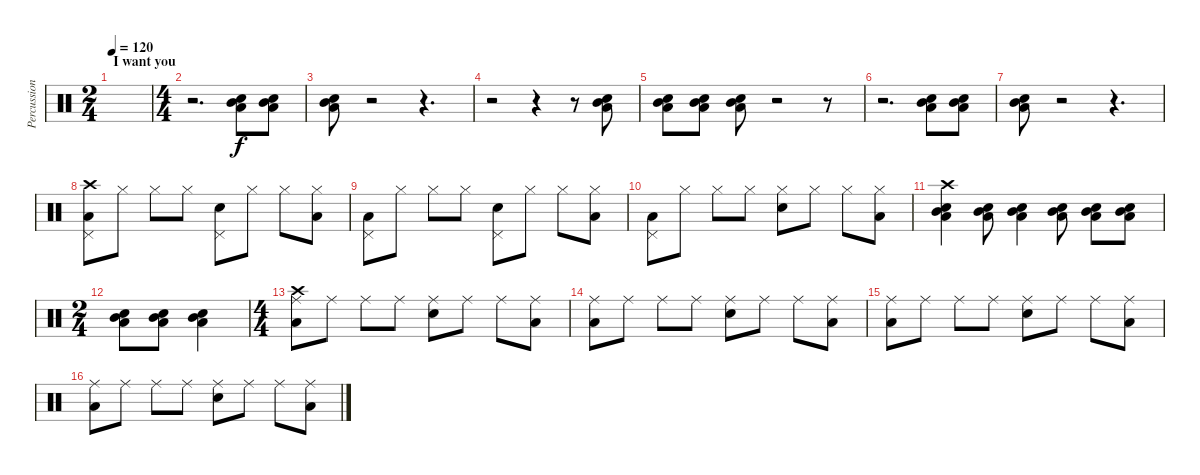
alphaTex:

\track ("Percussions" "Percussion") {instrument percussion}
\staff {score}
\articulation defaults
\ts (2 4)
\section ("" "I want you")
\tempo 120
\clef neutral
\ks c
|
\ts (4 4)
r.2{d} ("Snare (hit) 2" "Mid Tom (hit)" "Low Floor Tom (hit)").8 ("Snare (hit) 2" "Mid Tom (hit)" "Low Floor Tom (hit)").8 |
("Snare (hit) 2" "Mid Tom (hit)" "Low Floor Tom (hit)").8 r.2 r.4{d} |
r.2 r.4 r.8 ("Snare (hit) 2" "Mid Tom (hit)" "Low Floor Tom (hit)").8 |
("Snare (hit) 2" "Mid Tom (hit)" "Low Floor Tom (hit)").8 ("Snare (hit) 2" "Mid Tom (hit)" "Low Floor Tom (hit)").8 ("Snare (hit) 2" "Mid Tom (hit)" "Low Floor Tom (hit)").8 r.2 r.8 |
r.2{d} ("Snare (hit) 2" "Mid Tom (hit)" "Low Floor Tom (hit)").8 ("Snare (hit) 2" "Mid Tom (hit)" "Low Floor Tom (hit)").8 |
("Snare (hit) 2" "Mid Tom (hit)" "Low Floor Tom (hit)").8 r.2 r.4{d} |
("Crash high (hit)" "Pedal Hi-Hat (hit)" "Low Floor Tom (hit)").8 "Hi-Hat (closed)".8 "Hi-Hat (closed)".8 "Hi-Hat (closed)".8 ("Snare (hit) 2" "Pedal Hi-Hat (hit)").8 "Hi-Hat (closed)".8 "Hi-Hat (closed)".8 ("Hi-Hat (closed)" "Low Floor Tom (hit)").8 |
("Pedal Hi-Hat (hit)" "Low Floor Tom (hit)").8 "Hi-Hat (closed)".8 "Hi-Hat (closed)".8 "Hi-Hat (closed)".8 ("Snare (hit) 2" "Pedal Hi-Hat (hit)").8 "Hi-Hat (closed)".8 "Hi-Hat (closed)".8 ("Hi-Hat (closed)" "Low Floor Tom (hit)").8 |
("Pedal Hi-Hat (hit)" "Low Floor Tom (hit)").8 "Hi-Hat (closed)".8 "Hi-Hat (closed)".8 "Hi-Hat (closed)".8 ("Snare (hit) 2" "Hi-Hat (closed)").8 "Hi-Hat (closed)".8 "Hi-Hat (closed)".8 ("Hi-Hat (closed)" "Low Floor Tom (hit)").8 |
("Snare (hit) 2" "Mid Tom (hit)" "Crash high (hit)" "Low Floor Tom (hit)").4 ("Snare (hit) 2" "Mid Tom (hit)" "Low Floor Tom (hit)").8 ("Snare (hit) 2" "Mid Tom (hit)" "Low Floor Tom (hit)").4 ("Snare (hit) 2" "Mid Tom (hit)" "Low Floor Tom (hit)").8 ("Snare (hit) 2" "Mid Tom (hit)" "Low Floor Tom (hit)").8 ("Snare (hit) 2" "Mid Tom (hit)" "Low Floor Tom (hit)").8 |
\ts (2 4)
("Snare (hit) 2" "Mid Tom (hit)" "Low Floor Tom (hit)").8 ("Snare (hit) 2" "Mid Tom (hit)" "Low Floor Tom (hit)").8 ("Snare (hit) 2" "Mid Tom (hit)" "Low Floor Tom (hit)").4 |
\ts (4 4)
("Crash high (hit)" "Ride (middle)" "Low Floor Tom (hit)").8 "Ride (middle)".8 "Ride (middle)".8 "Ride (middle)".8 ("Snare (hit) 2" "Ride (middle)").8 "Ride (middle)".8 "Ride (middle)".8 ("Ride (middle)" "Low Floor Tom (hit)").8 |
("Ride (middle)" "Low Floor Tom (hit)").8 "Ride (middle)".8 "Ride (middle)".8 "Ride (middle)".8 ("Snare (hit) 2" "Ride (middle)").8 "Ride (middle)".8 "Ride (middle)".8 ("Ride (middle)" "Low Floor Tom (hit)").8 |
("Ride (middle)" "Low Floor Tom (hit)").8 "Ride (middle)".8 "Ride (middle)".8 "Ride (middle)".8 ("Snare (hit) 2" "Ride (middle)").8 "Ride (middle)".8 "Ride (middle)".8 ("Ride (middle)" "Low Floor Tom (hit)").8 |
("Ride (middle)" "Low Floor Tom (hit)").8 "Ride (middle)".8 "Ride (middle)".8 "Ride (middle)".8 ("Snare (hit) 2" "Ride (middle)").8 "Ride (middle)".8 "Ride (middle)".8 ("Ride (middle)" "Low Floor Tom (hit)").8
